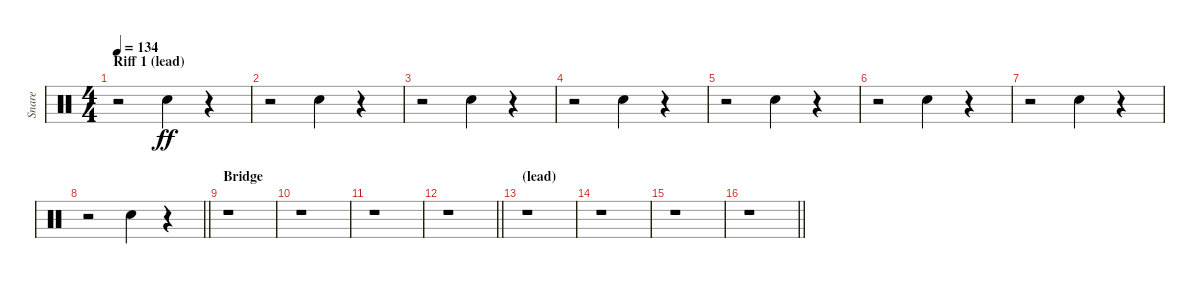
\track ("Snare" "Snare") {instrument percussion}
\staff {score}
\articulation defaults
\ts (4 4)
\section ("" "Riff 1 (lead)")
\tempo 134
\clef neutral
\ks c
r.2{dy fff} "Snare (hit) 2".4{dy ff} r.4 |
r.2 "Snare (hit) 2".4 r.4 |
r.2 "Snare (hit) 2".4 r.4 |
r.2 "Snare (hit) 2".4 r.4 |
r.2 "Snare (hit) 2".4 r.4 |
r.2 "Snare (hit) 2".4 r.4 |
r.2 "Snare (hit) 2".4 r.4 |
\barLineRight lightlight
r.2 "Snare (hit) 2".4 r.4 |
\section ("" "Bridge")
r.1 |
r.1 |
r.1 |
\barLineRight lightlight
r.1 |
\section ("" "(lead)")
r.1 |
r.1 |
r.1 |
\barLineRight lightlight
r.1
